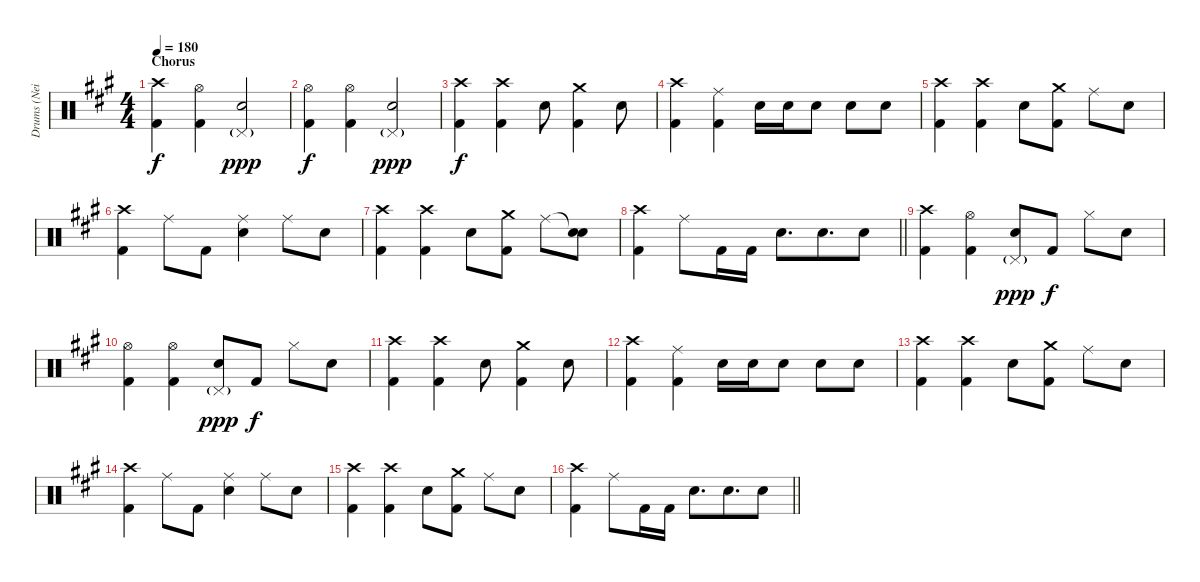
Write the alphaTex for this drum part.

\track ("Drums (Neil Sanderson)" "Drums (Nei") {instrument percussion}
\staff {score}
\articulation defaults
\ts (4 4)
\section ("" "Chorus")
\tempo 180
\clef neutral
\ks f#minor
("Crash high (hit)" "Kick (hit) 2").4{dy f} ("Hi-Hat (open)" "Kick (hit) 2").4 ("Pedal Hi-Hat (hit)"{g} "Electric Snare (hit)").2{dy ppp} |
("Hi-Hat (open)" "Kick (hit) 2").4{dy f} ("Hi-Hat (open)" "Kick (hit) 2").4 ("Pedal Hi-Hat (hit)"{g} "Electric Snare (hit)").2{dy ppp} |
("Crash high (hit)" "Kick (hit) 2").4{dy f} ("Crash high (hit)" "Kick (hit) 2").4 "Electric Snare (hit)".8 ("Crash medium (hit)" "Kick (hit) 2").4 "Electric Snare (hit)".8 |
("Crash high (hit)" "Kick (hit) 2").4 ("Ride (middle)" "Kick (hit) 2").4 "Electric Snare (hit)".16 "Electric Snare (hit)".16 "Electric Snare (hit)".8 "Electric Snare (hit)".8 "Electric Snare (hit)".8 |
("Crash high (hit)" "Kick (hit) 2").4 ("Crash high (hit)" "Kick (hit) 2").4 "Electric Snare (hit)".8 ("Crash medium (hit)" "Kick (hit) 2").8 "Ride (middle)".8 "Electric Snare (hit)".8 |
("Crash high (hit)" "Kick (hit) 2").4 "Ride (middle)".8 "Kick (hit) 2".8 ("Ride (middle)" "Electric Snare (hit)").4 "Ride (middle)".8 "Electric Snare (hit)".8 |
("Crash high (hit)" "Kick (hit) 2").4 ("Crash high (hit)" "Kick (hit) 2").4 "Electric Snare (hit)".8 ("Crash medium (hit)" "Kick (hit) 2").8 "Ride (middle)".8 ("Snare (hit)"{t} "Electric Snare (hit)").8 |
\barLineRight lightlight
("Crash high (hit)" "Kick (hit) 2").4 "Ride (middle)".8 "Kick (hit) 2".16 "Kick (hit) 2".16 "Electric Snare (hit)".8{d} "Electric Snare (hit)".8{d beam merge} "Electric Snare (hit)".8 |
("Crash high (hit)" "Kick (hit) 2").4 ("Hi-Hat (open)" "Kick (hit) 2").4 ("Pedal Hi-Hat (hit)"{g} "Electric Snare (hit)").8{dy ppp} "Kick (hit) 2".8{dy f} "Hi-Hat (closed)".8 "Electric Snare (hit)".8 |
("Hi-Hat (open)" "Kick (hit) 2").4 ("Hi-Hat (open)" "Kick (hit) 2").4 ("Pedal Hi-Hat (hit)"{g} "Electric Snare (hit)").8{dy ppp} "Kick (hit) 2".8{dy f} "Hi-Hat (closed)".8 "Electric Snare (hit)".8 |
("Crash high (hit)" "Kick (hit) 2").4 ("Crash high (hit)" "Kick (hit) 2").4 "Electric Snare (hit)".8 ("Crash medium (hit)" "Kick (hit) 2").4 "Electric Snare (hit)".8 |
("Crash high (hit)" "Kick (hit) 2").4 ("Ride (middle)" "Kick (hit) 2").4 "Electric Snare (hit)".16 "Electric Snare (hit)".16 "Electric Snare (hit)".8 "Electric Snare (hit)".8 "Electric Snare (hit)".8 |
("Crash high (hit)" "Kick (hit) 2").4 ("Crash high (hit)" "Kick (hit) 2").4 "Electric Snare (hit)".8 ("Crash medium (hit)" "Kick (hit) 2").8 "Ride (middle)".8 "Electric Snare (hit)".8 |
("Crash high (hit)" "Kick (hit) 2").4 "Ride (middle)".8 "Kick (hit) 2".8 ("Ride (middle)" "Electric Snare (hit)").4 "Ride (middle)".8 "Electric Snare (hit)".8 |
("Crash high (hit)" "Kick (hit) 2").4 ("Crash high (hit)" "Kick (hit) 2").4 "Electric Snare (hit)".8 ("Crash medium (hit)" "Kick (hit) 2").8 "Ride (middle)".8 "Electric Snare (hit)".8 |
\barLineRight lightlight
("Crash high (hit)" "Kick (hit) 2").4 "Ride (middle)".8 "Kick (hit) 2".16 "Kick (hit) 2".16 "Electric Snare (hit)".8{d} "Electric Snare (hit)".8{d beam merge} "Electric Snare (hit)".8
